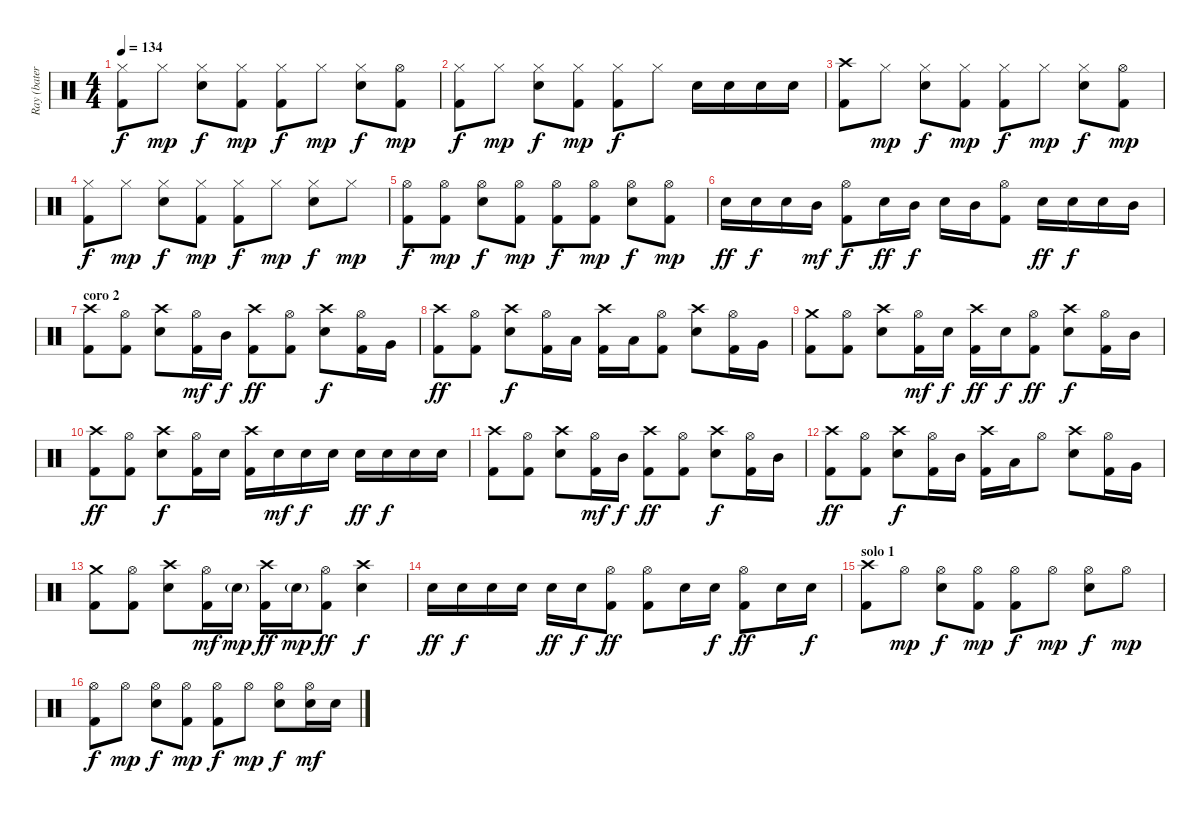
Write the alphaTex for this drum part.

\track ("Ray (batería)" "Ray (bater") {instrument percussion}
\staff {score}
\articulation defaults
\ts (4 4)
\tempo 134
\clef neutral
\ks c
("Hi-Hat (closed)" "Kick (hit) 2").8{dy f} "Hi-Hat (closed)".8{dy mp} ("Hi-Hat (closed)" "Snare (hit) 2").8{dy f} ("Hi-Hat (closed)" "Kick (hit) 2").8{dy mp} ("Hi-Hat (closed)" "Kick (hit) 2").8{dy f} "Hi-Hat (closed)".8{dy mp} ("Hi-Hat (closed)" "Snare (hit) 2").8{dy f} ("Hi-Hat (open)" "Kick (hit) 2").8{dy mp} |
("Hi-Hat (closed)" "Kick (hit) 2").8{dy f} "Hi-Hat (closed)".8{dy mp} ("Hi-Hat (closed)" "Snare (hit) 2").8{dy f} ("Hi-Hat (closed)" "Kick (hit) 2").8{dy mp} ("Hi-Hat (closed)" "Kick (hit) 2").8{dy f} "Hi-Hat (closed)".8 "Snare (hit) 2".16 "Snare (hit) 2".16 "Snare (hit) 2".16 "Snare (hit) 2".16 |
("Crash high (hit)" "Kick (hit) 2").8 "Hi-Hat (closed)".8{dy mp} ("Hi-Hat (closed)" "Snare (hit) 2").8{dy f} ("Hi-Hat (closed)" "Kick (hit) 2").8{dy mp} ("Hi-Hat (closed)" "Kick (hit) 2").8{dy f} "Hi-Hat (closed)".8{dy mp} ("Hi-Hat (closed)" "Snare (hit) 2").8{dy f} ("Hi-Hat (open)" "Kick (hit) 2").8{dy mp} |
("Hi-Hat (closed)" "Kick (hit) 2").8{dy f} "Hi-Hat (closed)".8{dy mp} ("Hi-Hat (closed)" "Snare (hit) 2").8{dy f} ("Hi-Hat (closed)" "Kick (hit) 2").8{dy mp} ("Hi-Hat (closed)" "Kick (hit) 2").8{dy f} "Hi-Hat (closed)".8{dy mp} ("Hi-Hat (closed)" "Snare (hit) 2").8{dy f} "Hi-Hat (closed)".8{dy mp} |
("Hi-Hat (open)" "Kick (hit) 2").8{dy f} ("Hi-Hat (open)" "Kick (hit) 2").8{dy mp} ("Hi-Hat (open)" "Snare (hit) 2").8{dy f} ("Hi-Hat (open)" "Kick (hit) 2").8{dy mp} ("Hi-Hat (open)" "Kick (hit) 2").8{dy f} ("Hi-Hat (open)" "Kick (hit) 2").8{dy mp} ("Hi-Hat (open)" "Snare (hit) 2").8{dy f} ("Hi-Hat (open)" "Kick (hit) 2").8{dy mp} |
"Snare (hit) 2".16{dy ff} "Snare (hit) 2".16{dy f} "Snare (hit) 2".16 "Mid Tom (hit)".16{dy mf} ("Hi-Hat (open)" "Kick (hit) 2").8{dy f} "Snare (hit) 2".16{dy ff} "Mid Tom (hit)".16{dy f} "Snare (hit) 2".16 "Mid Tom (hit)".16 ("Hi-Hat (open)" "Kick (hit) 2").8 "Snare (hit) 2".16{dy ff} "Snare (hit) 2".16{dy f} "Snare (hit) 2".16 "Mid Tom (hit)".16 |
\section ("" "coro 2")
("Crash high (hit)" "Kick (hit) 2").8 ("Hi-Hat (open)" "Kick (hit) 2").8 ("Crash high (hit)" "Snare (hit) 2").8 ("Hi-Hat (open)" "Kick (hit) 2").16{dy mf} "Mid Tom (hit)".16{dy f} ("Crash high (hit)" "Kick (hit) 2").8{dy ff} ("Hi-Hat (open)" "Kick (hit) 2").8 ("Crash high (hit)" "Snare (hit) 2").8{dy f} ("Hi-Hat (open)" "Kick (hit) 2").16 "Very Low Tom (hit)".16 |
("Crash high (hit)" "Kick (hit) 2").8{dy ff} ("Hi-Hat (open)" "Kick (hit) 2").8 ("Crash high (hit)" "Snare (hit) 2").8{dy f} ("Hi-Hat (open)" "Kick (hit) 2").16 "Low Tom (hit)".16 ("Crash high (hit)" "Kick (hit) 2").16 "Low Tom (hit)".16 ("Hi-Hat (open)" "Kick (hit) 2").8 ("Crash high (hit)" "Snare (hit) 2").8 ("Hi-Hat (open)" "Kick (hit) 2").16 "Very Low Tom (hit)".16 |
("Crash medium (hit)" "Kick (hit) 2").8 ("Hi-Hat (open)" "Kick (hit) 2").8 ("Crash high (hit)" "Snare (hit) 2").8 ("Hi-Hat (open)" "Kick (hit) 2").16{dy mf} "Snare (hit) 2".16{dy f} ("Crash high (hit)" "Kick (hit) 2").16{dy ff} "Snare (hit) 2".16{dy f} ("Hi-Hat (open)" "Kick (hit) 2").8{dy ff} ("Crash high (hit)" "Snare (hit) 2").8{dy f} ("Hi-Hat (open)" "Kick (hit) 2").16 "Mid Tom (hit)".16 |
("Crash high (hit)" "Kick (hit) 2").8{dy ff} ("Hi-Hat (open)" "Kick (hit) 2").8 ("Crash high (hit)" "Snare (hit) 2").8{dy f} ("Hi-Hat (open)" "Kick (hit) 2").16 "Snare (hit) 2".16 ("Crash high (hit)" "Kick (hit) 2").16 "Snare (hit) 2".16{dy mf} "Snare (hit) 2".16{dy f} "Snare (hit) 2".16 "Snare (hit) 2".16{dy ff} "Snare (hit) 2".16{dy f} "Snare (hit) 2".16 "Snare (hit) 2".16 |
("Crash high (hit)" "Kick (hit) 2").8 ("Hi-Hat (open)" "Kick (hit) 2").8 ("Crash high (hit)" "Snare (hit) 2").8 ("Hi-Hat (open)" "Kick (hit) 2").16{dy mf} "Mid Tom (hit)".16{dy f} ("Crash high (hit)" "Kick (hit) 2").8{dy ff} ("Hi-Hat (open)" "Kick (hit) 2").8 ("Crash high (hit)" "Snare (hit) 2").8{dy f} ("Hi-Hat (open)" "Kick (hit) 2").16 "Mid Tom (hit)".16 |
("Crash high (hit)" "Kick (hit) 2").8{dy ff} ("Hi-Hat (open)" "Kick (hit) 2").8 ("Crash high (hit)" "Snare (hit) 2").8{dy f} ("Hi-Hat (open)" "Kick (hit) 2").16 "Mid Tom (hit)".16 ("Crash high (hit)" "Kick (hit) 2").16 "Low Tom (hit)".16 "Hi-Hat (open)".8 ("Crash high (hit)" "Snare (hit) 2").8 ("Hi-Hat (open)" "Kick (hit) 2").16 "Very Low Tom (hit)".16 |
("Crash medium (hit)" "Kick (hit) 2").8 ("Hi-Hat (open)" "Kick (hit) 2").8 ("Crash high (hit)" "Snare (hit) 2").8 ("Hi-Hat (open)" "Kick (hit) 2").16{dy mf} "Snare (hit) 2"{g}.16{dy mp} ("Crash high (hit)" "Kick (hit) 2").16{dy ff} "Snare (hit) 2"{g}.16{dy mp} ("Hi-Hat (open)" "Kick (hit) 2").8{dy ff} ("Crash high (hit)" "Snare (hit) 2").4{dy f} |
"Snare (hit) 2".16{dy ff} "Snare (hit) 2".16{dy f} "Snare (hit) 2".16 "Snare (hit) 2".16 "Snare (hit) 2".16{dy ff} "Snare (hit) 2".16{dy f} ("Hi-Hat (open)" "Kick (hit) 2").8{dy ff} ("Hi-Hat (open)" "Kick (hit) 2").8 "Snare (hit) 2".16 "Snare (hit) 2".16{dy f} ("Hi-Hat (open)" "Kick (hit) 2").8{dy ff} "Snare (hit) 2".16 "Snare (hit) 2".16{dy f} |
\section ("" "solo 1")
("Crash high (hit)" "Kick (hit) 2").8 "Hi-Hat (open)".8{dy mp} ("Hi-Hat (open)" "Snare (hit) 2").8{dy f} ("Hi-Hat (open)" "Kick (hit) 2").8{dy mp} ("Hi-Hat (open)" "Kick (hit) 2").8{dy f} "Hi-Hat (open)".8{dy mp} ("Hi-Hat (open)" "Snare (hit) 2").8{dy f} "Hi-Hat (open)".8{dy mp} |
("Hi-Hat (open)" "Kick (hit) 2").8{dy f} "Hi-Hat (open)".8{dy mp} ("Hi-Hat (open)" "Snare (hit) 2").8{dy f} ("Hi-Hat (open)" "Kick (hit) 2").8{dy mp} ("Hi-Hat (open)" "Kick (hit) 2").8{dy f} "Hi-Hat (open)".8{dy mp} ("Hi-Hat (open)" "Snare (hit) 2").8{dy f} ("Hi-Hat (open)" "Snare (hit) 2").16{dy mf} "Snare (hit) 2".16
